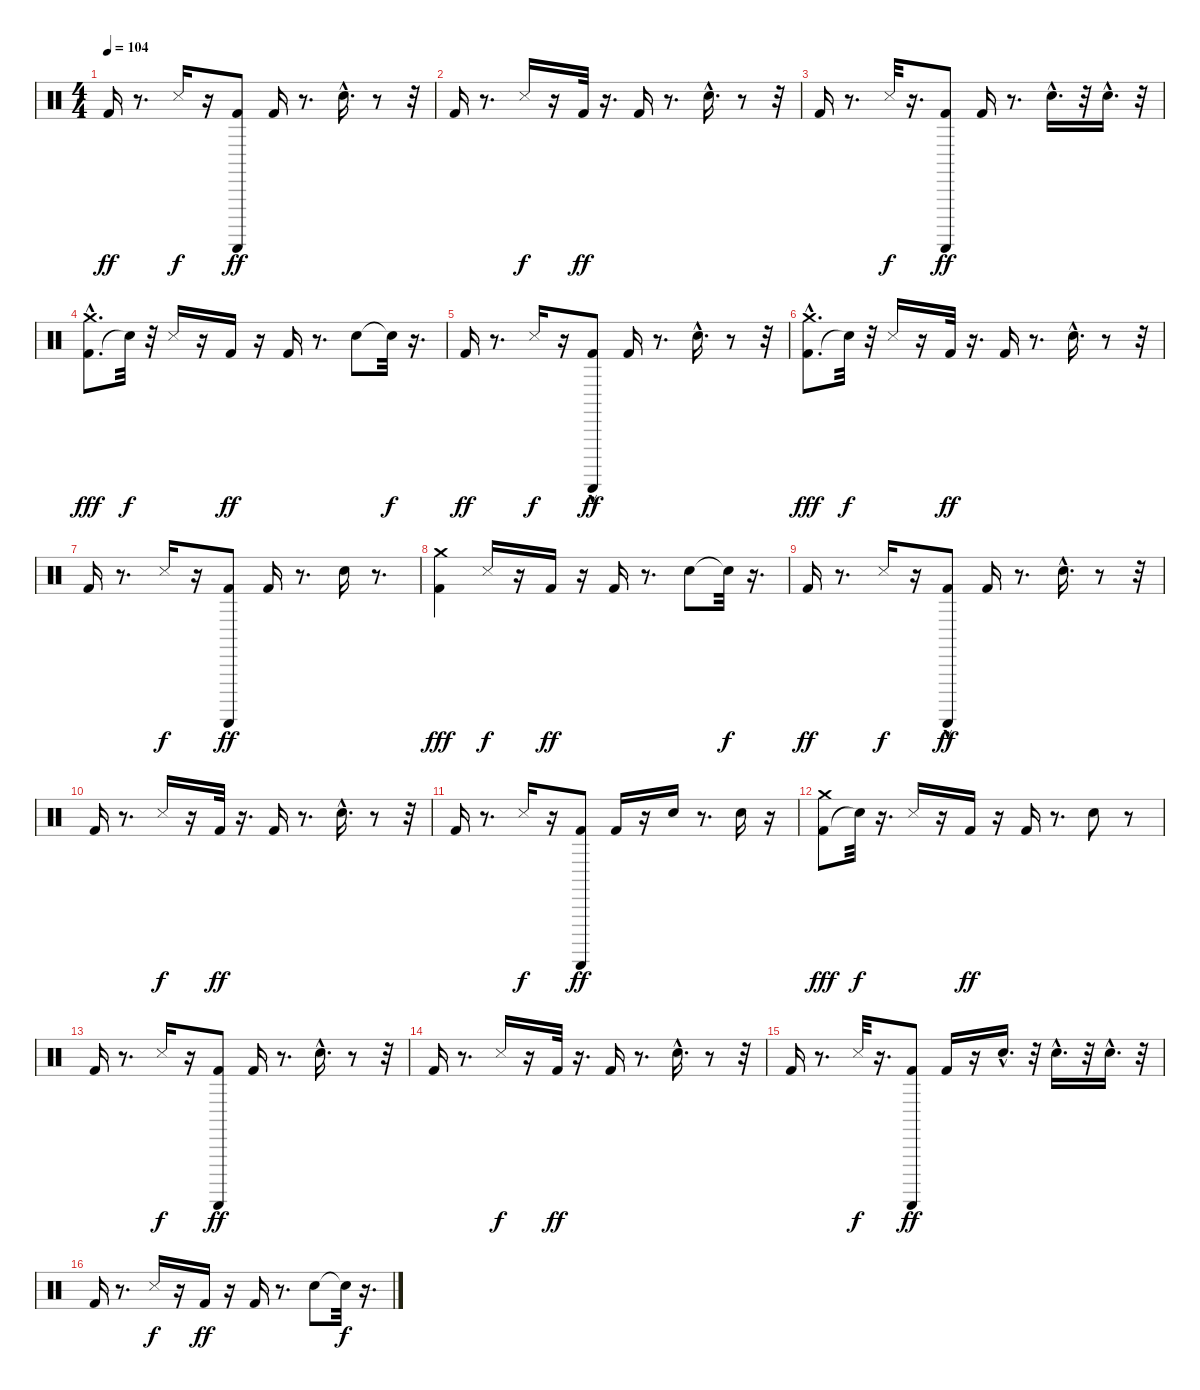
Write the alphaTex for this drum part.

\track "" {instrument percussion}
\staff {score}
\articulation defaults
\ts (4 4)
\tempo 104
\clef neutral
\ks c "Kick (hit) 2".16{dy ff}
r.8{d} "Snare (side stick) 3".16{dy f} r.16 ("Kick (hit) 2" "Guiro (scrap-return)").8{dy ff} "Kick (hit) 2".16 r.8{d} "Snare (hit) 2"{hac}.16{d} r.8 r.32 |
"Kick (hit) 2".16 r.8{d} "Snare (side stick) 3".16{dy f} r.16 "Kick (hit) 2".32{dy ff} r.16{d} "Kick (hit) 2".16 r.8{d} "Snare (hit) 2"{hac}.16{d} r.8 r.32 |
"Kick (hit) 2".16 r.8{d} "Snare (side stick) 3".32{dy f} r.16{d} ("Kick (hit) 2" "Guiro (scrap-return)").8{dy ff} "Kick (hit) 2".16 r.8{d} "Snare (hit) 2"{hac}.16{d} r.32 "Snare (hit) 2"{hac}.16{d} r.32 |
("Kick (hit) 2" "Crash medium (hit)"{hac}).8{d dy fff} "Snare (hit)"{t}.32{dy f} r.32 "Snare (side stick) 3".16 r.16 "Kick (hit) 2".16{dy ff} r.16 "Kick (hit) 2".16 r.8{d} "Snare (hit) 2".8 "Snare (hit)"{t}.32{dy f} r.16{d} |
"Kick (hit) 2".16{dy ff} r.8{d} "Snare (side stick) 3".16{dy f} r.16 ("Kick (hit) 2" "Guiro (scrap-return)"{hac}).8{dy ff} "Kick (hit) 2".16 r.8{d} "Snare (hit) 2"{hac}.16{d} r.8 r.32 |
("Kick (hit) 2" "Crash medium (hit)"{hac}).8{d dy fff} "Snare (hit)"{t}.32{dy f} r.32 "Snare (side stick) 3".16 r.16 "Kick (hit) 2".32{dy ff} r.16{d} "Kick (hit) 2".16 r.8{d} "Snare (hit) 2"{hac}.16{d} r.8 r.32 |
"Kick (hit) 2".16 r.8{d} "Snare (side stick) 3".16{dy f} r.16 ("Kick (hit) 2" "Guiro (scrap-return)").8{dy ff} "Kick (hit) 2".16 r.8{d} "Snare (hit) 2".16 r.8{d} |
("Kick (hit) 2" "Crash medium (hit)").4{dy fff} "Snare (side stick) 3".16{dy f} r.16 "Kick (hit) 2".16{dy ff} r.16 "Kick (hit) 2".16 r.8{d} "Snare (hit) 2".8 "Snare (hit)"{t}.32{dy f} r.16{d} |
"Kick (hit) 2".16{dy ff} r.8{d} "Snare (side stick) 3".16{dy f} r.16 ("Kick (hit) 2" "Guiro (scrap-return)"{hac}).8{dy ff} "Kick (hit) 2".16 r.8{d} "Snare (hit) 2"{hac}.16{d} r.8 r.32 |
"Kick (hit) 2".16 r.8{d} "Snare (side stick) 3".16{dy f} r.16 "Kick (hit) 2".32{dy ff} r.16{d} "Kick (hit) 2".16 r.8{d} "Snare (hit) 2"{hac}.16{d} r.8 r.32 |
"Kick (hit) 2".16 r.8{d} "Snare (side stick) 3".16{dy f} r.16 ("Kick (hit) 2" "Guiro (scrap-return)").8{dy ff} "Kick (hit) 2".16 r.16 "Snare (hit) 2".16 r.8{d} "Snare (hit) 2".16 r.16 |
("Kick (hit) 2" "Crash medium (hit)").8{dy fff} "Snare (hit)"{t}.32{dy f} r.16{d} "Snare (side stick) 3".16 r.16 "Kick (hit) 2".16{dy ff} r.16 "Kick (hit) 2".16 r.8{d} "Snare (hit) 2".8 r.8 |
"Kick (hit) 2".16 r.8{d} "Snare (side stick) 3".16{dy f} r.16 ("Kick (hit) 2" "Guiro (scrap-return)").8{dy ff} "Kick (hit) 2".16 r.8{d} "Snare (hit) 2"{hac}.16{d} r.8 r.32 |
"Kick (hit) 2".16 r.8{d} "Snare (side stick) 3".16{dy f} r.16 "Kick (hit) 2".32{dy ff} r.16{d} "Kick (hit) 2".16 r.8{d} "Snare (hit) 2"{hac}.16{d} r.8 r.32 |
"Kick (hit) 2".16 r.8{d} "Snare (side stick) 3".32{dy f} r.16{d} ("Kick (hit) 2" "Guiro (scrap-return)").8{dy ff} "Kick (hit) 2".16 r.16 "Snare (hit) 2"{hac}.16{d} r.32 "Snare (hit) 2"{hac}.16{d} r.32 "Snare (hit) 2"{hac}.16{d} r.32 |
"Kick (hit) 2".16 r.8{d} "Snare (side stick) 3".16{dy f} r.16 "Kick (hit) 2".16{dy ff} r.16 "Kick (hit) 2".16 r.8{d} "Snare (hit) 2".8 "Snare (hit)"{t}.32{dy f} r.16{d}
